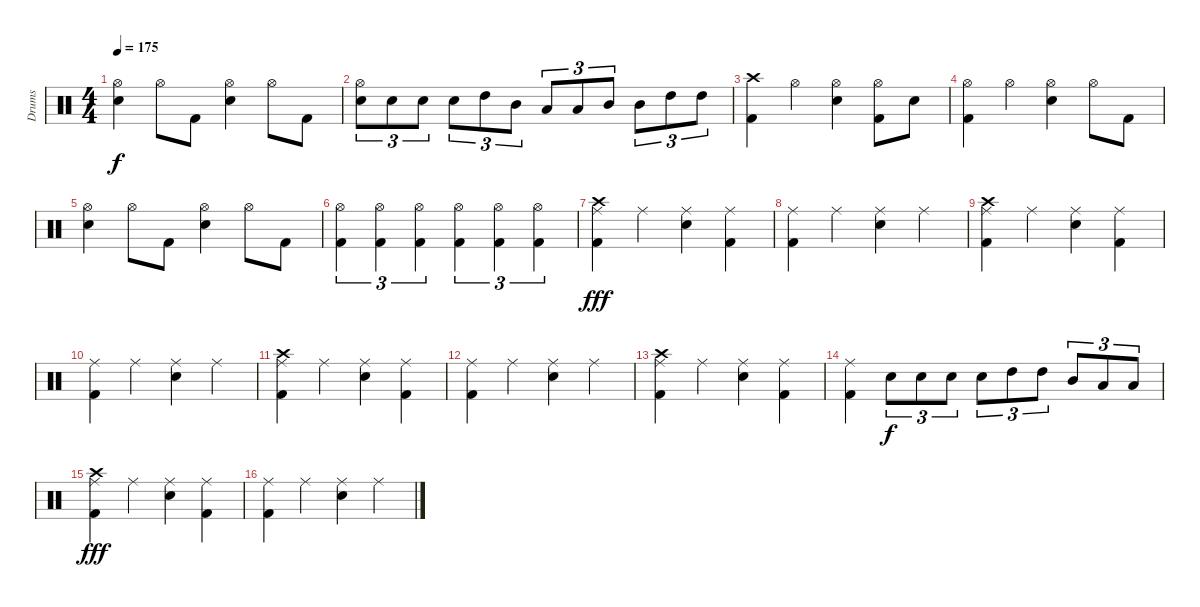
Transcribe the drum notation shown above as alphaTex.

\track ("Drums" "Drums") {instrument percussion}
\staff {score}
\articulation defaults
\ts (4 4)
\tempo 175
\clef neutral
\ks c
("Hi-Hat (open)" "Snare (hit) 2").4{dy f} "Hi-Hat (open)".8 "Kick (hit) 2".8 ("Hi-Hat (open)" "Snare (hit) 2").4 "Hi-Hat (open)".8 "Kick (hit) 2".8 |
("Hi-Hat (open)" "Snare (hit) 2").8{tu (3 2)} "Snare (hit) 2".8{tu (3 2)} "Snare (hit) 2".8{tu (3 2)} "Snare (hit) 2".8{tu (3 2)} "High Tom (hit)".8{tu (3 2)} "Mid Tom (hit)".8{tu (3 2)} "Low Tom (hit)".8{tu (3 2)} "Low Tom (hit)".8{tu (3 2)} "Mid Tom (hit)".8{tu (3 2)} "Mid Tom (hit)".8{tu (3 2)} "High Tom (hit)".8{tu (3 2)} "High Tom (hit)".8{tu (3 2)} |
("Crash high (hit)" "Kick (hit) 2").4 "Hi-Hat (open)".4 ("Hi-Hat (open)" "Snare (hit) 2").4 ("Hi-Hat (open)" "Kick (hit) 2").8 "Snare (hit) 2".8 |
("Hi-Hat (open)" "Kick (hit) 2").4 "Hi-Hat (open)".4 ("Hi-Hat (open)" "Snare (hit) 2").4 "Hi-Hat (open)".8 "Kick (hit) 2".8 |
("Hi-Hat (open)" "Snare (hit) 2").4 "Hi-Hat (open)".8 "Kick (hit) 2".8 ("Hi-Hat (open)" "Snare (hit) 2").4 "Hi-Hat (open)".8 "Kick (hit) 2".8 |
("Hi-Hat (open)"{pm} "Kick (hit) 2"{pm}).4{tu (3 2)} ("Hi-Hat (open)"{pm} "Kick (hit) 2"{pm}).4{tu (3 2)} ("Hi-Hat (open)"{pm} "Kick (hit) 2"{pm}).4{tu (3 2)} ("Hi-Hat (open)"{pm} "Kick (hit) 2"{pm}).4{tu (3 2)} ("Hi-Hat (open)"{pm} "Kick (hit) 2"{pm}).4{tu (3 2)} ("Hi-Hat (open)"{pm} "Kick (hit) 2"{pm}).4{tu (3 2)} |
("Crash high (hit)" "Ride (middle)" "Kick (hit) 2").4{dy fff} "Ride (middle)".4 ("Ride (middle)" "Snare (hit) 2").4 ("Ride (middle)" "Kick (hit) 2").4 |
("Ride (middle)" "Kick (hit) 2").4 "Ride (middle)".4 ("Ride (middle)" "Snare (hit) 2").4 "Ride (middle)".4 |
("Crash high (hit)" "Ride (middle)" "Kick (hit) 2").4 "Ride (middle)".4 ("Ride (middle)" "Snare (hit) 2").4 ("Ride (middle)" "Kick (hit) 2").4 |
("Ride (middle)" "Kick (hit) 2").4 "Ride (middle)".4 ("Ride (middle)" "Snare (hit) 2").4 "Ride (middle)".4 |
("Crash high (hit)" "Ride (middle)" "Kick (hit) 2").4 "Ride (middle)".4 ("Ride (middle)" "Snare (hit) 2").4 ("Ride (middle)" "Kick (hit) 2").4 |
("Ride (middle)" "Kick (hit) 2").4 "Ride (middle)".4 ("Ride (middle)" "Snare (hit) 2").4 "Ride (middle)".4 |
("Crash high (hit)" "Ride (middle)" "Kick (hit) 2").4 "Ride (middle)".4 ("Ride (middle)" "Snare (hit) 2").4 ("Ride (middle)" "Kick (hit) 2").4 |
("Ride (middle)" "Kick (hit) 2").4 "Snare (hit) 2".8{tu (3 2) dy f} "Snare (hit) 2".8{tu (3 2)} "Snare (hit) 2".8{tu (3 2)} "Snare (hit) 2".8{tu (3 2)} "High Tom (hit)".8{tu (3 2)} "High Tom (hit)".8{tu (3 2)} "Mid Tom (hit)".8{tu (3 2)} "Low Tom (hit)".8{tu (3 2)} "Low Tom (hit)".8{tu (3 2)} |
("Crash high (hit)" "Ride (middle)" "Kick (hit) 2").4{dy fff} "Ride (middle)".4 ("Ride (middle)" "Snare (hit) 2").4 ("Ride (middle)" "Kick (hit) 2").4 |
("Ride (middle)" "Kick (hit) 2").4 "Ride (middle)".4 ("Ride (middle)" "Snare (hit) 2").4 "Ride (middle)".4
